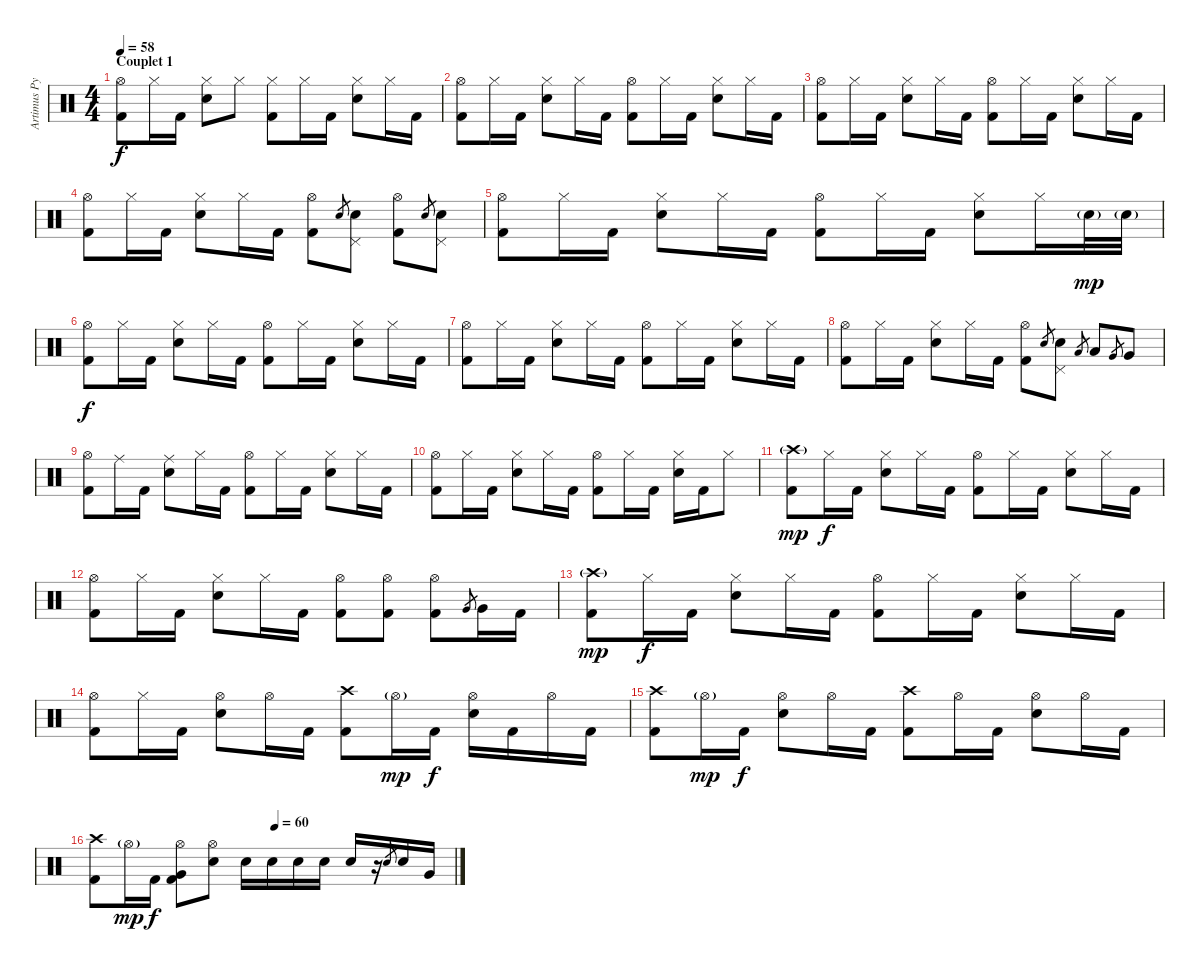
\track ("Artimus Pyle (drums)" "Artimus Py") {instrument percussion}
\staff {score}
\articulation defaults
\ts (4 4)
\section ("" "Couplet 1")
\tempo 58
\clef neutral
\ks c
("Hi-Hat (open)" "Kick (hit) 2").8{dy f} "Hi-Hat (closed)".16 "Kick (hit) 2".16 ("Hi-Hat (closed)" "Electric Snare (hit)").8 "Hi-Hat (closed)".8 ("Hi-Hat (closed)" "Kick (hit) 2").8 "Hi-Hat (closed)".16 "Kick (hit) 2".16 ("Hi-Hat (closed)" "Electric Snare (hit)").8 "Hi-Hat (closed)".16 "Kick (hit) 2".16 |
("Hi-Hat (open)" "Kick (hit) 2").8 "Hi-Hat (closed)".16 "Kick (hit) 2".16 ("Hi-Hat (closed)" "Electric Snare (hit)").8 "Hi-Hat (closed)".16 "Kick (hit) 2".16 ("Hi-Hat (open)" "Kick (hit) 2").8 "Hi-Hat (closed)".16 "Kick (hit) 2".16 ("Hi-Hat (closed)" "Electric Snare (hit)").8 "Hi-Hat (closed)".16 "Kick (hit) 2".16 |
("Hi-Hat (open)" "Kick (hit) 2").8 "Hi-Hat (closed)".16 "Kick (hit) 2".16 ("Hi-Hat (closed)" "Electric Snare (hit)").8 "Hi-Hat (closed)".16 "Kick (hit) 2".16 ("Hi-Hat (open)" "Kick (hit) 2").8 "Hi-Hat (closed)".16 "Kick (hit) 2".16 ("Hi-Hat (closed)" "Electric Snare (hit)").8 "Hi-Hat (closed)".16 "Kick (hit) 2".16 |
("Hi-Hat (open)" "Kick (hit) 2").8 "Hi-Hat (closed)".16 "Kick (hit) 2".16 ("Hi-Hat (closed)" "Electric Snare (hit)").8 "Hi-Hat (closed)".16 "Kick (hit) 2".16 ("Hi-Hat (open)" "Kick (hit) 2").8 "Electric Snare (hit)".8{gr} ("Pedal Hi-Hat (hit)" "Electric Snare (hit)").8 ("Hi-Hat (open)" "Kick (hit) 2").8 "Electric Snare (hit)".8{gr} ("Pedal Hi-Hat (hit)" "Electric Snare (hit)").8 |
("Hi-Hat (open)" "Kick (hit) 2").8 "Hi-Hat (closed)".16 "Kick (hit) 2".16 ("Hi-Hat (closed)" "Electric Snare (hit)").8 "Hi-Hat (closed)".16 "Kick (hit) 2".16 ("Hi-Hat (open)" "Kick (hit) 2").8 "Hi-Hat (closed)".16 "Kick (hit) 2".16 ("Hi-Hat (closed)" "Electric Snare (hit)").8 "Hi-Hat (closed)".16 "Electric Snare (hit)"{g}.32{dy mp} "Electric Snare (hit)"{g}.32 |
("Hi-Hat (open)" "Kick (hit) 2").8{dy f} "Hi-Hat (closed)".16 "Kick (hit) 2".16 ("Hi-Hat (closed)" "Electric Snare (hit)").8 "Hi-Hat (closed)".16 "Kick (hit) 2".16 ("Hi-Hat (open)" "Kick (hit) 2").8 "Hi-Hat (closed)".16 "Kick (hit) 2".16 ("Hi-Hat (closed)" "Electric Snare (hit)").8 "Hi-Hat (closed)".16 "Kick (hit) 2".16 |
("Hi-Hat (open)" "Kick (hit) 2").8 "Hi-Hat (closed)".16 "Kick (hit) 2".16 ("Hi-Hat (closed)" "Electric Snare (hit)").8 "Hi-Hat (closed)".16 "Kick (hit) 2".16 ("Hi-Hat (open)" "Kick (hit) 2").8 "Hi-Hat (closed)".16 "Kick (hit) 2".16 ("Hi-Hat (closed)" "Electric Snare (hit)").8 "Hi-Hat (closed)".16 "Kick (hit) 2".16 |
("Hi-Hat (open)" "Kick (hit) 2").8 "Hi-Hat (closed)".16 "Kick (hit) 2".16 ("Hi-Hat (closed)" "Electric Snare (hit)").8 "Hi-Hat (closed)".16 "Kick (hit) 2".16 ("Hi-Hat (open)" "Kick (hit) 2").8 "Electric Snare (hit)".8{gr} ("Pedal Hi-Hat (hit)" "Electric Snare (hit)").8 "Low Tom (hit)".8{gr} "Low Tom (hit)".8 "Very Low Tom (hit)".8{gr} "Very Low Tom (hit)".8 |
("Hi-Hat (open)" "Kick (hit) 2").8 "Ride (middle)".16 "Kick (hit) 2".16 ("Ride (middle)" "Electric Snare (hit)").8 "Hi-Hat (closed)".16 "Kick (hit) 2".16 ("Hi-Hat (open)" "Kick (hit) 2").8 "Hi-Hat (closed)".16 "Kick (hit) 2".16 ("Hi-Hat (closed)" "Electric Snare (hit)").8 "Hi-Hat (closed)".16 "Kick (hit) 2".16 |
("Hi-Hat (open)" "Kick (hit) 2").8 "Hi-Hat (closed)".16 "Kick (hit) 2".16 ("Hi-Hat (closed)" "Electric Snare (hit)").8 "Hi-Hat (closed)".16 "Kick (hit) 2".16 ("Hi-Hat (open)" "Kick (hit) 2").8 "Hi-Hat (closed)".16 "Kick (hit) 2".16 ("Hi-Hat (closed)" "Electric Snare (hit)").16 "Kick (hit) 2".16 "Hi-Hat (closed)".8 |
("Crash high (hit)"{g} "Kick (hit) 2").8{dy mp} "Hi-Hat (closed)".16{dy f} "Kick (hit) 2".16 ("Hi-Hat (closed)" "Electric Snare (hit)").8 "Hi-Hat (closed)".16 "Kick (hit) 2".16 ("Hi-Hat (open)" "Kick (hit) 2").8 "Hi-Hat (closed)".16 "Kick (hit) 2".16 ("Hi-Hat (closed)" "Electric Snare (hit)").8 "Hi-Hat (closed)".16 "Kick (hit) 2".16 |
("Hi-Hat (open)" "Kick (hit) 2").8 "Hi-Hat (closed)".16 "Kick (hit) 2".16 ("Hi-Hat (closed)" "Electric Snare (hit)").8 "Hi-Hat (closed)".16 "Kick (hit) 2".16 ("Hi-Hat (open)" "Kick (hit) 2").8 ("Hi-Hat (open)" "Kick (hit) 2").8 ("Hi-Hat (open)" "Kick (hit) 2").8 "Very Low Tom (hit)".8{gr} "Very Low Tom (hit)".16 "Kick (hit) 2".16 |
("Crash high (hit)"{g} "Kick (hit) 2").8{dy mp} "Hi-Hat (closed)".16{dy f} "Kick (hit) 2".16 ("Hi-Hat (closed)" "Electric Snare (hit)").8 "Hi-Hat (closed)".16 "Kick (hit) 2".16 ("Hi-Hat (open)" "Kick (hit) 2").8 "Hi-Hat (closed)".16 "Kick (hit) 2".16 ("Hi-Hat (closed)" "Electric Snare (hit)").8 "Hi-Hat (closed)".16 "Kick (hit) 2".16 |
("Hi-Hat (open)" "Kick (hit) 2").8 "Hi-Hat (closed)".16 "Kick (hit) 2".16 ("Hi-Hat (open)" "Electric Snare (hit)").8 "Hi-Hat (open)".16 "Kick (hit) 2".16 ("Crash high (hit)" "Kick (hit) 2").8 "Hi-Hat (open)"{g}.16{dy mp} "Kick (hit) 2".16{dy f} ("Hi-Hat (open)" "Electric Snare (hit)").16 "Kick (hit) 2".16 "Hi-Hat (open)".16 "Kick (hit) 2".16 |
("Crash high (hit)" "Kick (hit) 2").8 "Hi-Hat (open)"{g}.16{dy mp} "Kick (hit) 2".16{dy f} ("Hi-Hat (open)" "Electric Snare (hit)").8 "Hi-Hat (open)".16 "Kick (hit) 2".16 ("Crash high (hit)" "Kick (hit) 2").8 "Hi-Hat (open)".16 "Kick (hit) 2".16 ("Hi-Hat (open)" "Electric Snare (hit)").8 "Hi-Hat (open)".16 "Kick (hit) 2".16 |
\tempo (60 0.5)
("Crash high (hit)" "Kick (hit) 2").8 "Hi-Hat (open)"{g}.16{dy mp} "Kick (hit) 2".16{dy f} ("Hi-Hat (open)" "Very Low Tom (hit)" "Kick (hit) 2").8 ("Hi-Hat (open)" "Electric Snare (hit)").8 "Electric Snare (hit)".16 "Electric Snare (hit)".16 "Electric Snare (hit)".16 "Electric Snare (hit)".16 "Electric Snare (hit)".16 r.16 "Electric Snare (hit)".8{gr} "Electric Snare (hit)".16 "Very Low Tom (hit)".16
